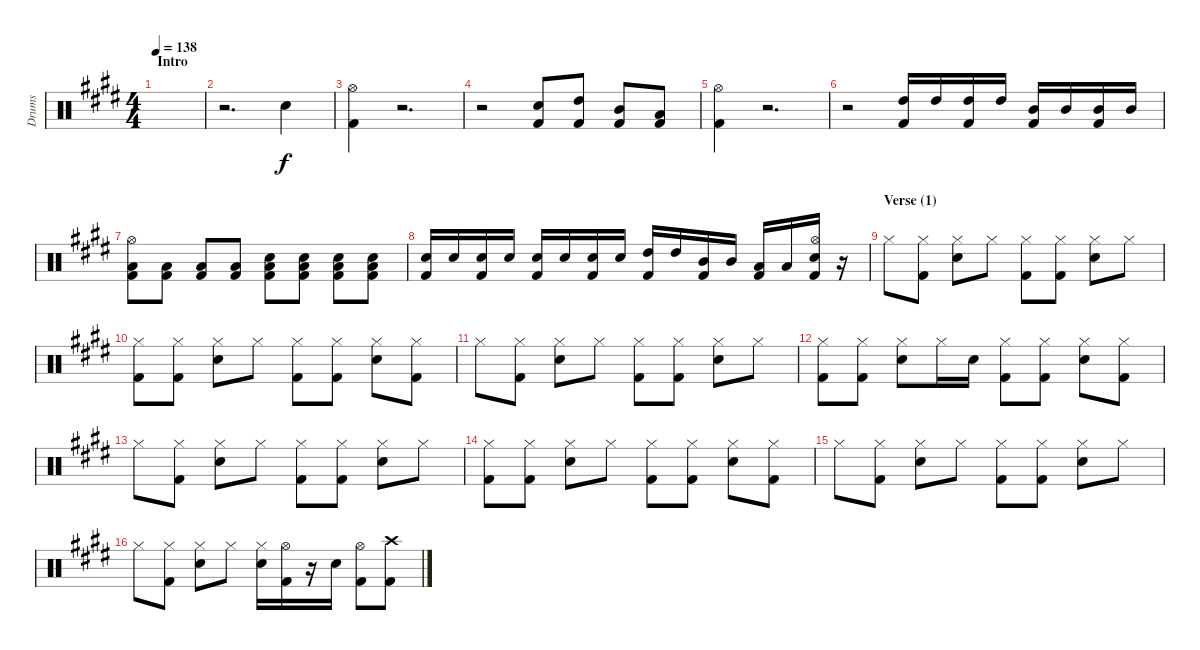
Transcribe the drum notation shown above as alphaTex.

\track ("Drums" "Drums") {instrument percussion}
\staff {score}
\articulation defaults
\ts (4 4)
\section ("" "Intro")
\tempo 138
\clef neutral
\ks e
|
r.2{d} "Snare (hit) 2".4 |
("Hi-Hat (open)" "Kick (hit) 2").4 r.2{d} |
r.2 ("Snare (hit) 2" "Kick (hit) 2").8 ("High Tom (hit)" "Kick (hit) 2").8 ("Mid Tom (hit)" "Kick (hit) 2").8 ("Low Floor Tom (hit)" "Kick (hit) 2").8 |
("Hi-Hat (open)" "Kick (hit) 2").4 r.2{d} |
r.2 ("High Tom (hit)" "Kick (hit) 2").16 "High Tom (hit)".16 ("High Tom (hit)" "Kick (hit) 2").16 "High Tom (hit)".16 ("Mid Tom (hit)" "Kick (hit) 2").16 "Mid Tom (hit)".16 ("Mid Tom (hit)" "Kick (hit) 2").16 "Mid Tom (hit)".16 |
("Hi-Hat (open)" "Low Floor Tom (hit)" "Kick (hit) 2").8 ("Low Floor Tom (hit)" "Kick (hit) 2").8 ("Low Floor Tom (hit)" "Kick (hit) 2").8 ("Low Floor Tom (hit)" "Kick (hit) 2").8 ("Low Floor Tom (hit)" "Kick (hit) 2" "Snare (hit) 2").8 ("Low Floor Tom (hit)" "Kick (hit) 2" "Snare (hit) 2").8 ("Low Floor Tom (hit)" "Kick (hit) 2" "Snare (hit) 2").8 ("Low Floor Tom (hit)" "Kick (hit) 2" "Snare (hit) 2").8 |
("Kick (hit) 2" "Snare (hit) 2").16 "Snare (hit) 2".16 ("Kick (hit) 2" "Snare (hit) 2").16 "Snare (hit) 2".16 ("Kick (hit) 2" "Snare (hit) 2").16 "Snare (hit) 2".16 ("Kick (hit) 2" "Snare (hit) 2").16 "Snare (hit) 2".16 ("Kick (hit) 2" "High Tom (hit)").16 "High Tom (hit)".16 ("Kick (hit) 2" "Mid Tom (hit)").16 "Mid Tom (hit)".16 ("Kick (hit) 2" "Low Tom (hit)").16 "Low Tom (hit)".16 ("Hi-Hat (open)" "Kick (hit) 2" "Snare (hit) 2").16 r.16 |
\section ("" "Verse (1)")
"Hi-Hat (closed)".8 ("Kick (hit) 2" "Hi-Hat (closed)").8 ("Snare (hit) 2" "Hi-Hat (closed)").8 "Hi-Hat (closed)".8 ("Kick (hit) 2" "Hi-Hat (closed)").8 ("Kick (hit) 2" "Hi-Hat (closed)").8 ("Snare (hit) 2" "Hi-Hat (closed)").8 "Hi-Hat (closed)".8 |
("Kick (hit) 2" "Hi-Hat (closed)").8 ("Kick (hit) 2" "Hi-Hat (closed)").8 ("Snare (hit) 2" "Hi-Hat (closed)").8 "Hi-Hat (closed)".8 ("Kick (hit) 2" "Hi-Hat (closed)").8 ("Kick (hit) 2" "Hi-Hat (closed)").8 ("Snare (hit) 2" "Hi-Hat (closed)").8 ("Kick (hit) 2" "Hi-Hat (closed)").8 |
"Hi-Hat (closed)".8 ("Kick (hit) 2" "Hi-Hat (closed)").8 ("Snare (hit) 2" "Hi-Hat (closed)").8 "Hi-Hat (closed)".8 ("Kick (hit) 2" "Hi-Hat (closed)").8 ("Kick (hit) 2" "Hi-Hat (closed)").8 ("Snare (hit) 2" "Hi-Hat (closed)").8 "Hi-Hat (closed)".8 |
("Kick (hit) 2" "Hi-Hat (closed)").8 ("Kick (hit) 2" "Hi-Hat (closed)").8 ("Snare (hit) 2" "Hi-Hat (closed)").8 "Hi-Hat (closed)".16 "Snare (hit) 2".16 ("Kick (hit) 2" "Hi-Hat (closed)").8 ("Kick (hit) 2" "Hi-Hat (closed)").8 ("Snare (hit) 2" "Hi-Hat (closed)").8 ("Kick (hit) 2" "Hi-Hat (closed)").8 |
"Hi-Hat (closed)".8 ("Kick (hit) 2" "Hi-Hat (closed)").8 ("Snare (hit) 2" "Hi-Hat (closed)").8 "Hi-Hat (closed)".8 ("Kick (hit) 2" "Hi-Hat (closed)").8 ("Kick (hit) 2" "Hi-Hat (closed)").8 ("Snare (hit) 2" "Hi-Hat (closed)").8 "Hi-Hat (closed)".8 |
("Kick (hit) 2" "Hi-Hat (closed)").8 ("Kick (hit) 2" "Hi-Hat (closed)").8 ("Snare (hit) 2" "Hi-Hat (closed)").8 "Hi-Hat (closed)".8 ("Kick (hit) 2" "Hi-Hat (closed)").8 ("Kick (hit) 2" "Hi-Hat (closed)").8 ("Snare (hit) 2" "Hi-Hat (closed)").8 ("Kick (hit) 2" "Hi-Hat (closed)").8 |
"Hi-Hat (closed)".8 ("Kick (hit) 2" "Hi-Hat (closed)").8 ("Snare (hit) 2" "Hi-Hat (closed)").8 "Hi-Hat (closed)".8 ("Kick (hit) 2" "Hi-Hat (closed)").8 ("Kick (hit) 2" "Hi-Hat (closed)").8 ("Snare (hit) 2" "Hi-Hat (closed)").8 "Hi-Hat (closed)".8 |
"Hi-Hat (closed)".8 ("Kick (hit) 2" "Hi-Hat (closed)").8 ("Snare (hit) 2" "Hi-Hat (closed)").8 "Hi-Hat (closed)".8 ("Snare (hit) 2" "Hi-Hat (closed)").16 ("Hi-Hat (open)" "Kick (hit) 2").16 r.16 "Snare (hit) 2".16 ("Hi-Hat (open)" "Kick (hit) 2").8 ("Crash high (hit)" "Kick (hit) 2").8
